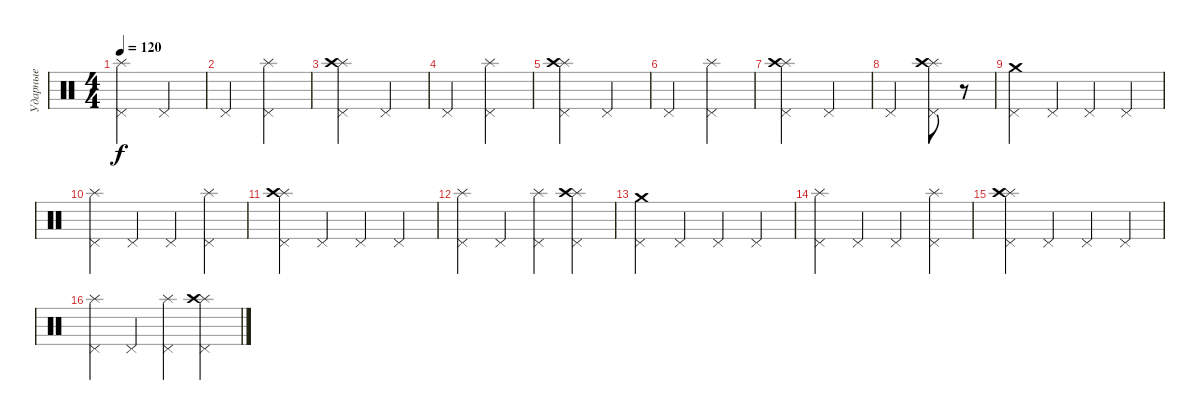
\track ("Ударные" "Ударные") {instrument percussion}
\staff {score}
\articulation defaults
\ts (4 4)
\tempo 120
\clef neutral
\ks c
("Pedal Hi-Hat (hit)" "Splash (hit)").2{dy f} "Pedal Hi-Hat (hit)".2 |
"Pedal Hi-Hat (hit)".2 ("Pedal Hi-Hat (hit)" "Splash (hit)").2 |
("Pedal Hi-Hat (hit)" "Splash (hit)" "Crash high (hit)").2 "Pedal Hi-Hat (hit)".2 |
"Pedal Hi-Hat (hit)".2 ("Pedal Hi-Hat (hit)" "Splash (hit)").2 |
("Pedal Hi-Hat (hit)" "Splash (hit)" "Crash high (hit)").2 "Pedal Hi-Hat (hit)".2 |
"Pedal Hi-Hat (hit)".2 ("Pedal Hi-Hat (hit)" "Splash (hit)").2 |
("Pedal Hi-Hat (hit)" "Splash (hit)" "Crash high (hit)").2 "Pedal Hi-Hat (hit)".2 |
"Pedal Hi-Hat (hit)".2 ("Pedal Hi-Hat (hit)" "Splash (hit)" "Crash high (hit)").8 r.8 |
("Pedal Hi-Hat (hit)" "Crash medium (hit)").4 "Pedal Hi-Hat (hit)".4 "Pedal Hi-Hat (hit)".4 "Pedal Hi-Hat (hit)".4 |
("Pedal Hi-Hat (hit)" "Splash (hit)").4 "Pedal Hi-Hat (hit)".4 "Pedal Hi-Hat (hit)".4 ("Pedal Hi-Hat (hit)" "Splash (hit)").4 |
("Pedal Hi-Hat (hit)" "Splash (hit)" "Crash high (hit)").4 "Pedal Hi-Hat (hit)".4 "Pedal Hi-Hat (hit)".4 "Pedal Hi-Hat (hit)".4 |
("Pedal Hi-Hat (hit)" "Splash (hit)").4 "Pedal Hi-Hat (hit)".4 ("Pedal Hi-Hat (hit)" "Splash (hit)").4 ("Pedal Hi-Hat (hit)" "Splash (hit)" "Crash high (hit)").4 |
("Pedal Hi-Hat (hit)" "Crash medium (hit)").4 "Pedal Hi-Hat (hit)".4 "Pedal Hi-Hat (hit)".4 "Pedal Hi-Hat (hit)".4 |
("Pedal Hi-Hat (hit)" "Splash (hit)").4 "Pedal Hi-Hat (hit)".4 "Pedal Hi-Hat (hit)".4 ("Pedal Hi-Hat (hit)" "Splash (hit)").4 |
("Pedal Hi-Hat (hit)" "Splash (hit)" "Crash high (hit)").4 "Pedal Hi-Hat (hit)".4 "Pedal Hi-Hat (hit)".4 "Pedal Hi-Hat (hit)".4 |
("Pedal Hi-Hat (hit)" "Splash (hit)").4 "Pedal Hi-Hat (hit)".4 ("Pedal Hi-Hat (hit)" "Splash (hit)").4 ("Pedal Hi-Hat (hit)" "Splash (hit)" "Crash high (hit)").4
